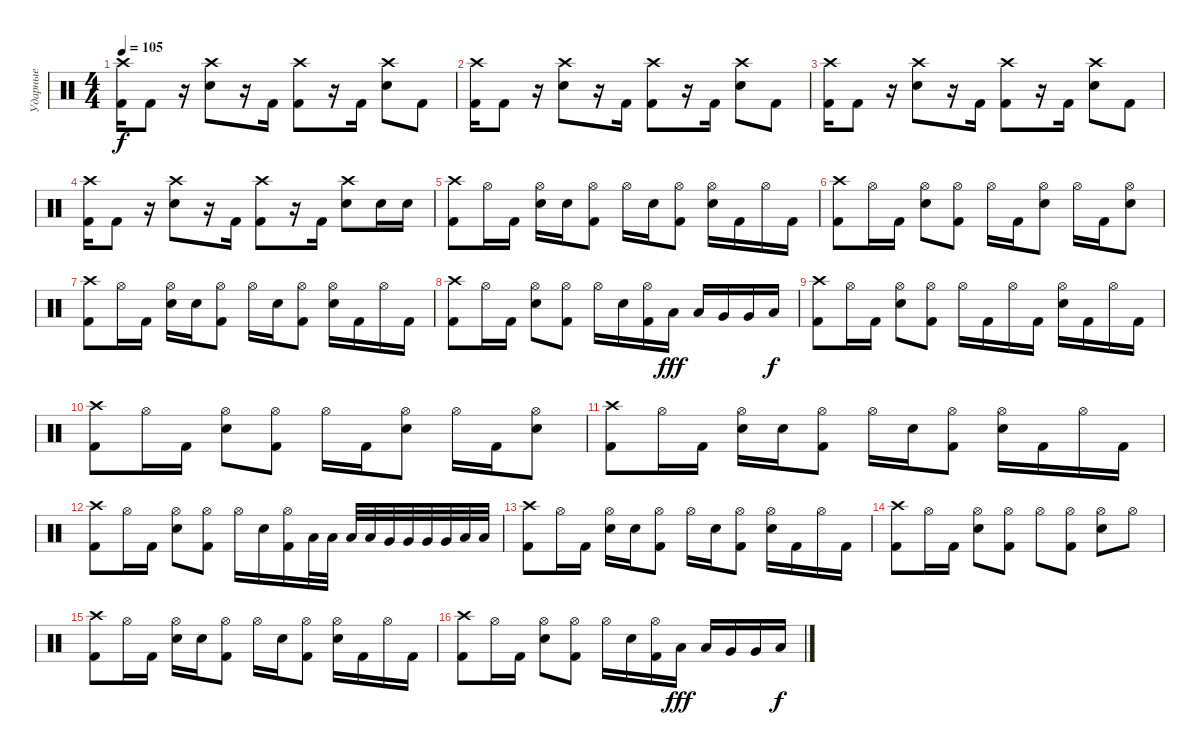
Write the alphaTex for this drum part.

\track ("Ударные" "Ударные") {instrument percussion}
\staff {score}
\articulation defaults
\ts (4 4)
\tempo 105
\clef neutral
\ks c
("Crash high (hit)" "Kick (hit) 2").16{dy f} "Kick (hit) 2".8 r.16 ("Crash high (hit)" "Electric Snare (hit)").8 r.16 "Kick (hit) 2".16 ("Crash high (hit)" "Kick (hit) 2").8 r.16 "Kick (hit) 2".16 ("Crash high (hit)" "Electric Snare (hit)").8 "Kick (hit) 2".8 |
("Crash high (hit)" "Kick (hit) 2").16 "Kick (hit) 2".8 r.16 ("Crash high (hit)" "Electric Snare (hit)").8 r.16 "Kick (hit) 2".16 ("Crash high (hit)" "Kick (hit) 2").8 r.16 "Kick (hit) 2".16 ("Crash high (hit)" "Electric Snare (hit)").8 "Kick (hit) 2".8 |
("Crash high (hit)" "Kick (hit) 2").16 "Kick (hit) 2".8 r.16 ("Crash high (hit)" "Electric Snare (hit)").8 r.16 "Kick (hit) 2".16 ("Crash high (hit)" "Kick (hit) 2").8 r.16 "Kick (hit) 2".16 ("Crash high (hit)" "Electric Snare (hit)").8 "Kick (hit) 2".8 |
("Crash high (hit)" "Kick (hit) 2").16 "Kick (hit) 2".8 r.16 ("Crash high (hit)" "Electric Snare (hit)").8 r.16 "Kick (hit) 2".16 ("Crash high (hit)" "Kick (hit) 2").8 r.16 "Kick (hit) 2".16 ("Crash high (hit)" "Electric Snare (hit)").8 "Electric Snare (hit)".16 "Electric Snare (hit)".16 |
("Crash high (hit)" "Kick (hit) 2").8 "Hi-Hat (open)".16 "Kick (hit) 2".16 ("Hi-Hat (open)" "Electric Snare (hit)").16 "Electric Snare (hit)".16 ("Hi-Hat (open)" "Kick (hit) 2").8 "Hi-Hat (open)".16 "Electric Snare (hit)".16 ("Hi-Hat (open)" "Kick (hit) 2").8 ("Hi-Hat (open)" "Electric Snare (hit)").16 "Kick (hit) 2".16 "Hi-Hat (open)".16 "Kick (hit) 2".16 |
("Crash high (hit)" "Kick (hit) 2").8 "Hi-Hat (open)".16 "Kick (hit) 2".16 ("Hi-Hat (open)" "Electric Snare (hit)").8 ("Hi-Hat (open)" "Kick (hit) 2").8 "Hi-Hat (open)".16 "Kick (hit) 2".16 ("Hi-Hat (open)" "Electric Snare (hit)").8 "Hi-Hat (open)".16 "Kick (hit) 2".16 ("Hi-Hat (open)" "Electric Snare (hit)").8 |
("Crash high (hit)" "Kick (hit) 2").8 "Hi-Hat (open)".16 "Kick (hit) 2".16 ("Hi-Hat (open)" "Electric Snare (hit)").16 "Electric Snare (hit)".16 ("Hi-Hat (open)" "Kick (hit) 2").8 "Hi-Hat (open)".16 "Electric Snare (hit)".16 ("Hi-Hat (open)" "Kick (hit) 2").8 ("Hi-Hat (open)" "Electric Snare (hit)").16 "Kick (hit) 2".16 "Hi-Hat (open)".16 "Kick (hit) 2".16 |
("Crash high (hit)" "Kick (hit) 2").8 "Hi-Hat (open)".16 "Kick (hit) 2".16 ("Hi-Hat (open)" "Electric Snare (hit)").8 ("Hi-Hat (open)" "Kick (hit) 2").8 "Hi-Hat (open)".16 "Electric Snare (hit)".16 ("Hi-Hat (open)" "Kick (hit) 2").16 "Low Tom (hit)".16{dy fff} "Low Tom (hit)".16 "Very Low Tom (hit)".16 "Very Low Tom (hit)".16 "Low Floor Tom (hit)".16{dy f} |
("Crash high (hit)" "Kick (hit) 2").8 "Hi-Hat (open)".16 "Kick (hit) 2".16 ("Hi-Hat (open)" "Electric Snare (hit)").8 ("Hi-Hat (open)" "Kick (hit) 2").8 "Hi-Hat (open)".16 "Kick (hit) 2".16 "Hi-Hat (open)".16 "Kick (hit) 2".16 ("Hi-Hat (open)" "Electric Snare (hit)").16 "Kick (hit) 2".16 "Hi-Hat (open)".16 "Kick (hit) 2".16 |
("Crash high (hit)" "Kick (hit) 2").8 "Hi-Hat (open)".16 "Kick (hit) 2".16 ("Hi-Hat (open)" "Electric Snare (hit)").8 ("Hi-Hat (open)" "Kick (hit) 2").8 "Hi-Hat (open)".16 "Kick (hit) 2".16 ("Hi-Hat (open)" "Electric Snare (hit)").8 "Hi-Hat (open)".16 "Kick (hit) 2".16 ("Hi-Hat (open)" "Electric Snare (hit)").8 |
("Crash high (hit)" "Kick (hit) 2").8 "Hi-Hat (open)".16 "Kick (hit) 2".16 ("Hi-Hat (open)" "Electric Snare (hit)").16 "Electric Snare (hit)".16 ("Hi-Hat (open)" "Kick (hit) 2").8 "Hi-Hat (open)".16 "Electric Snare (hit)".16 ("Hi-Hat (open)" "Kick (hit) 2").8 ("Hi-Hat (open)" "Electric Snare (hit)").16 "Kick (hit) 2".16 "Hi-Hat (open)".16 "Kick (hit) 2".16 |
("Crash high (hit)" "Kick (hit) 2").8 "Hi-Hat (open)".16 "Kick (hit) 2".16 ("Hi-Hat (open)" "Electric Snare (hit)").8 ("Hi-Hat (open)" "Kick (hit) 2").8 "Hi-Hat (open)".16 "Electric Snare (hit)".16 ("Hi-Hat (open)" "Kick (hit) 2").16 "Low Tom (hit)".32 "Low Tom (hit)".32 "Low Tom (hit)".32 "Low Tom (hit)".32 "Very Low Tom (hit)".32 "Very Low Tom (hit)".32 "Very Low Tom (hit)".32 "Very Low Tom (hit)".32 "Low Floor Tom (hit)".32 "Low Floor Tom (hit)".32 |
("Crash high (hit)" "Kick (hit) 2").8 "Hi-Hat (open)".16 "Kick (hit) 2".16 ("Hi-Hat (open)" "Electric Snare (hit)").16 "Electric Snare (hit)".16 ("Hi-Hat (open)" "Kick (hit) 2").8 "Hi-Hat (open)".16 "Electric Snare (hit)".16 ("Hi-Hat (open)" "Kick (hit) 2").8 ("Hi-Hat (open)" "Electric Snare (hit)").16 "Kick (hit) 2".16 "Hi-Hat (open)".16 "Kick (hit) 2".16 |
("Crash high (hit)" "Kick (hit) 2").8 "Hi-Hat (open)".16 "Kick (hit) 2".16 ("Hi-Hat (open)" "Electric Snare (hit)").8 ("Hi-Hat (open)" "Kick (hit) 2").8 "Hi-Hat (open)".8 ("Hi-Hat (open)" "Kick (hit) 2").8 ("Hi-Hat (open)" "Electric Snare (hit)").8 "Hi-Hat (open)".8 |
("Crash high (hit)" "Kick (hit) 2").8 "Hi-Hat (open)".16 "Kick (hit) 2".16 ("Hi-Hat (open)" "Electric Snare (hit)").16 "Electric Snare (hit)".16 ("Hi-Hat (open)" "Kick (hit) 2").8 "Hi-Hat (open)".16 "Electric Snare (hit)".16 ("Hi-Hat (open)" "Kick (hit) 2").8 ("Hi-Hat (open)" "Electric Snare (hit)").16 "Kick (hit) 2".16 "Hi-Hat (open)".16 "Kick (hit) 2".16 |
("Crash high (hit)" "Kick (hit) 2").8 "Hi-Hat (open)".16 "Kick (hit) 2".16 ("Hi-Hat (open)" "Electric Snare (hit)").8 ("Hi-Hat (open)" "Kick (hit) 2").8 "Hi-Hat (open)".16 "Electric Snare (hit)".16 ("Hi-Hat (open)" "Kick (hit) 2").16 "Low Tom (hit)".16{dy fff} "Low Tom (hit)".16 "Very Low Tom (hit)".16 "Very Low Tom (hit)".16 "Low Floor Tom (hit)".16{dy f}
